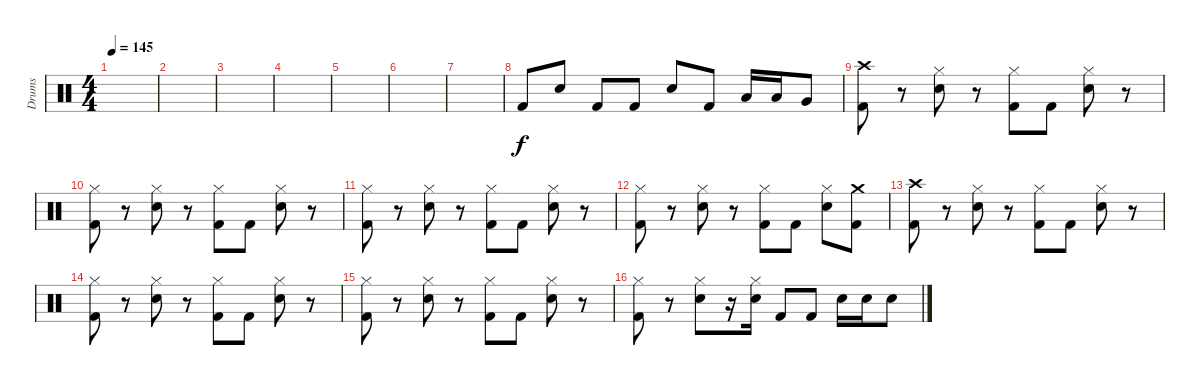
\track ("Drums" "Drums") {instrument percussion}
\staff {score}
\articulation defaults
\ts (4 4)
\tempo 145
\clef neutral
\ks c
|
|
|
|
|
|
|
"Kick (hit) 2".8 "Snare (hit) 2".8 "Kick (hit) 2".8 "Kick (hit) 2".8 "Snare (hit) 2".8 "Kick (hit) 2".8 "Low Tom (hit)".16 "Low Tom (hit)".16 "Very Low Tom (hit)".8 |
\section ("" "")
("Crash high (hit)" "Kick (hit) 2").8 r.8 ("Hi-Hat (closed)" "Snare (hit) 2").8 r.8 ("Hi-Hat (closed)" "Kick (hit) 2").8 "Kick (hit) 2".8 ("Hi-Hat (closed)" "Snare (hit) 2").8 r.8 |
("Hi-Hat (closed)" "Kick (hit) 2").8 r.8 ("Hi-Hat (closed)" "Snare (hit) 2").8 r.8 ("Hi-Hat (closed)" "Kick (hit) 2").8 "Kick (hit) 2".8 ("Hi-Hat (closed)" "Snare (hit) 2").8 r.8 |
("Hi-Hat (closed)" "Kick (hit) 2").8 r.8 ("Hi-Hat (closed)" "Snare (hit) 2").8 r.8 ("Hi-Hat (closed)" "Kick (hit) 2").8 "Kick (hit) 2".8 ("Hi-Hat (closed)" "Snare (hit) 2").8 r.8 |
("Hi-Hat (closed)" "Kick (hit) 2").8 r.8 ("Hi-Hat (closed)" "Snare (hit) 2").8 r.8 ("Hi-Hat (closed)" "Kick (hit) 2").8 "Kick (hit) 2".8 ("Hi-Hat (closed)" "Snare (hit) 2").8 ("Crash medium (hit)" "Kick (hit) 2").8 |
("Crash high (hit)" "Kick (hit) 2").8 r.8 ("Hi-Hat (closed)" "Snare (hit) 2").8 r.8 ("Hi-Hat (closed)" "Kick (hit) 2").8 "Kick (hit) 2".8 ("Hi-Hat (closed)" "Snare (hit) 2").8 r.8 |
("Hi-Hat (closed)" "Kick (hit) 2").8 r.8 ("Hi-Hat (closed)" "Snare (hit) 2").8 r.8 ("Hi-Hat (closed)" "Kick (hit) 2").8 "Kick (hit) 2".8 ("Hi-Hat (closed)" "Snare (hit) 2").8 r.8 |
("Hi-Hat (closed)" "Kick (hit) 2").8 r.8 ("Hi-Hat (closed)" "Snare (hit) 2").8 r.8 ("Hi-Hat (closed)" "Kick (hit) 2").8 "Kick (hit) 2".8 ("Hi-Hat (closed)" "Snare (hit) 2").8 r.8 |
("Hi-Hat (closed)" "Kick (hit) 2").8 r.8 ("Hi-Hat (closed)" "Snare (hit) 2").8 r.16 ("Hi-Hat (closed)" "Snare (hit) 2").16 "Kick (hit) 2".8 "Kick (hit) 2".8 "Snare (hit) 2".16 "Snare (hit) 2".16 "Snare (hit) 2".8
